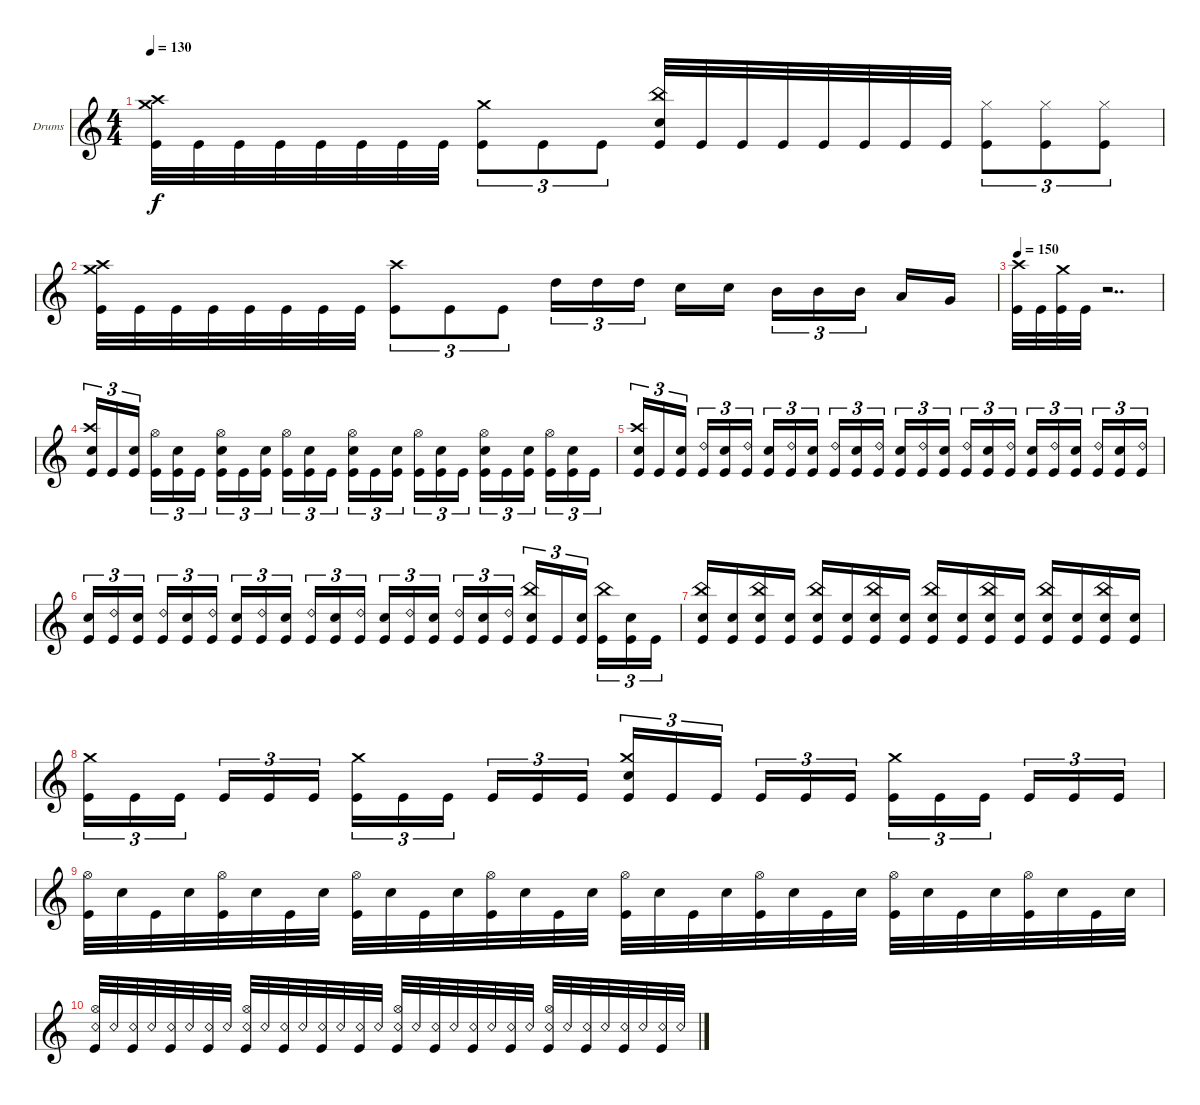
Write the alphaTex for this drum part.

\defaultSystemsLayout 4
\bracketExtendMode groupsimilarinstruments
\firstSystemTrackNameOrientation horizontal
\otherSystemsTrackNameOrientation horizontal
\track ("Drums" "Drums") {instrument percussion}
\staff {score}
\articulation defaults
\ts (4 4)
\tempo 130
\clef g2
\ks c
("Kick (hit)" "Crash high (hit)" "Crash medium (hit)").32{dy f} "Kick (hit)".32 "Kick (hit)".32 "Kick (hit)".32 "Kick (hit)".32 "Kick (hit)".32 "Kick (hit)".32 "Kick (hit)".32 ("Kick (hit)" "Crash medium (hit)").8{tu (3 2)} "Kick (hit)".8{tu (3 2)} "Kick (hit)".8{tu (3 2)} ("Kick (hit)" "China (hit)" "Snare (hit) 2").32 "Kick (hit)".32 "Kick (hit)".32 "Kick (hit)".32 "Kick (hit)".32 "Kick (hit)".32 "Kick (hit)".32 "Kick (hit)".32 ("Kick (hit)" "Hi-Hat (closed)").8{tu (3 2)} ("Kick (hit)" "Hi-Hat (closed)").8{tu (3 2)} ("Kick (hit)" "Hi-Hat (closed)").8{tu (3 2)} |
("Kick (hit)" "Crash high (hit)" "Crash medium (hit)").32 "Kick (hit)".32 "Kick (hit)".32 "Kick (hit)".32 "Kick (hit)".32 "Kick (hit)".32 "Kick (hit)".32 "Kick (hit)".32 ("Kick (hit)" "Crash high (hit)").8{tu (3 2)} "Kick (hit)".8{tu (3 2)} "Kick (hit)".8{tu (3 2)} "High Tom (hit)".16{tu (3 2)} "High Tom (hit)".16{tu (3 2)} "High Tom (hit)".16{tu (3 2)} "Snare (hit) 2".16 "Snare (hit) 2".16 "Mid Tom (hit)".16{tu (3 2)} "Mid Tom (hit)".16{tu (3 2)} "Mid Tom (hit)".16{tu (3 2)} "Low Tom (hit)".16 "Very Low Tom (hit)".16 |
\tempo 150
("Kick (hit)" "Crash high (hit)").32 "Kick (hit)".32 ("Kick (hit)" "Crash medium (hit)").32 "Kick (hit)".32 r.2{dd} |
("Kick (hit)" "Snare (hit) 2" "Crash high (hit)").16{tu (3 2)} "Kick (hit)".16{tu (3 2)} ("Kick (hit)" "Snare (hit) 2").16{tu (3 2)} ("Kick (hit)" "Hi-Hat (open)").16{tu (3 2)} ("Kick (hit)" "Snare (hit) 2").16{tu (3 2)} "Kick (hit)".16{tu (3 2)} ("Kick (hit)" "Snare (hit) 2" "Hi-Hat (open)").16{tu (3 2)} "Kick (hit)".16{tu (3 2)} ("Kick (hit)" "Snare (hit) 2").16{tu (3 2)} ("Kick (hit)" "Hi-Hat (open)").16{tu (3 2)} ("Kick (hit)" "Snare (hit) 2").16{tu (3 2)} "Kick (hit)".16{tu (3 2)} ("Kick (hit)" "Snare (hit) 2" "Hi-Hat (open)").16{tu (3 2)} "Kick (hit)".16{tu (3 2)} ("Kick (hit)" "Snare (hit) 2").16{tu (3 2)} ("Kick (hit)" "Hi-Hat (open)").16{tu (3 2)} ("Kick (hit)" "Snare (hit) 2").16{tu (3 2)} "Kick (hit)".16{tu (3 2)} ("Kick (hit)" "Snare (hit) 2" "Hi-Hat (open)").16{tu (3 2)} "Kick (hit)".16{tu (3 2)} ("Kick (hit)" "Snare (hit) 2").16{tu (3 2)} ("Kick (hit)" "Hi-Hat (open)").16{tu (3 2)} ("Kick (hit)" "Snare (hit) 2").16{tu (3 2)} "Kick (hit)".16{tu (3 2)} |
("Kick (hit)" "Snare (hit) 2" "Crash high (hit)").16{tu (3 2)} "Kick (hit)".16{tu (3 2)} ("Kick (hit)" "Snare (hit) 2").16{tu (3 2)} ("Kick (hit)" "Ride (bell) 2").16{tu (3 2)} ("Kick (hit)" "Snare (hit) 2").16{tu (3 2)} ("Kick (hit)" "Ride (bell) 2").16{tu (3 2)} ("Kick (hit)" "Snare (hit) 2").16{tu (3 2)} ("Kick (hit)" "Ride (bell) 2").16{tu (3 2)} ("Kick (hit)" "Snare (hit) 2").16{tu (3 2)} ("Kick (hit)" "Ride (bell) 2").16{tu (3 2)} ("Kick (hit)" "Snare (hit) 2").16{tu (3 2)} ("Kick (hit)" "Ride (bell) 2").16{tu (3 2)} ("Kick (hit)" "Snare (hit) 2").16{tu (3 2)} ("Kick (hit)" "Ride (bell) 2").16{tu (3 2)} ("Kick (hit)" "Snare (hit) 2").16{tu (3 2)} ("Kick (hit)" "Ride (bell) 2").16{tu (3 2)} ("Kick (hit)" "Snare (hit) 2").16{tu (3 2)} ("Kick (hit)" "Ride (bell) 2").16{tu (3 2)} ("Kick (hit)" "Snare (hit) 2").16{tu (3 2)} ("Kick (hit)" "Ride (bell) 2").16{tu (3 2)} ("Kick (hit)" "Snare (hit) 2").16{tu (3 2)} ("Kick (hit)" "Ride (bell) 2").16{tu (3 2)} ("Kick (hit)" "Snare (hit) 2").16{tu (3 2)} ("Kick (hit)" "Ride (bell) 2").16{tu (3 2)} |
("Kick (hit)" "Snare (hit) 2").16{tu (3 2)} ("Kick (hit)" "Ride (bell) 2").16{tu (3 2)} ("Kick (hit)" "Snare (hit) 2").16{tu (3 2)} ("Kick (hit)" "Ride (bell) 2").16{tu (3 2)} ("Kick (hit)" "Snare (hit) 2").16{tu (3 2)} ("Kick (hit)" "Ride (bell) 2").16{tu (3 2)} ("Kick (hit)" "Snare (hit) 2").16{tu (3 2)} ("Kick (hit)" "Ride (bell) 2").16{tu (3 2)} ("Kick (hit)" "Snare (hit) 2").16{tu (3 2)} ("Kick (hit)" "Ride (bell) 2").16{tu (3 2)} ("Kick (hit)" "Snare (hit) 2").16{tu (3 2)} ("Kick (hit)" "Ride (bell) 2").16{tu (3 2)} ("Kick (hit)" "Snare (hit) 2").16{tu (3 2)} ("Kick (hit)" "Ride (bell) 2").16{tu (3 2)} ("Kick (hit)" "Snare (hit) 2").16{tu (3 2)} ("Kick (hit)" "Ride (bell) 2").16{tu (3 2)} ("Kick (hit)" "Snare (hit) 2").16{tu (3 2)} ("Kick (hit)" "Ride (bell) 2").16{tu (3 2)} ("Snare (hit) 2" "Kick (hit)" "China (hit)").16{tu (3 2)} "Kick (hit)".16{tu (3 2)} ("Snare (hit) 2" "Kick (hit)").16{tu (3 2)} ("Kick (hit)" "China (hit)").16{tu (3 2)} ("Snare (hit) 2" "Kick (hit)").16{tu (3 2)} "Kick (hit)".16{tu (3 2)} |
("Kick (hit)" "Snare (hit) 2" "China (hit)").16 ("Kick (hit)" "Snare (hit) 2").16 ("Kick (hit)" "Snare (hit) 2" "China (hit)").16 ("Kick (hit)" "Snare (hit) 2").16 ("Kick (hit)" "Snare (hit) 2" "China (hit)").16 ("Kick (hit)" "Snare (hit) 2").16 ("Kick (hit)" "Snare (hit) 2" "China (hit)").16 ("Kick (hit)" "Snare (hit) 2").16 ("Kick (hit)" "Snare (hit) 2" "China (hit)").16 ("Kick (hit)" "Snare (hit) 2").16 ("Kick (hit)" "Snare (hit) 2" "China (hit)").16 ("Kick (hit)" "Snare (hit) 2").16 ("Kick (hit)" "Snare (hit) 2" "China (hit)").16 ("Kick (hit)" "Snare (hit) 2").16 ("Kick (hit)" "Snare (hit) 2" "China (hit)").16 ("Kick (hit)" "Snare (hit) 2").16 |
("Kick (hit)" "Crash medium (hit)").16{tu (3 2)} "Kick (hit)".16{tu (3 2)} "Kick (hit)".16{tu (3 2)} "Kick (hit)".16{tu (3 2)} "Kick (hit)".16{tu (3 2)} "Kick (hit)".16{tu (3 2)} ("Kick (hit)" "Crash medium (hit)").16{tu (3 2)} "Kick (hit)".16{tu (3 2)} "Kick (hit)".16{tu (3 2)} "Kick (hit)".16{tu (3 2)} "Kick (hit)".16{tu (3 2)} "Kick (hit)".16{tu (3 2)} ("Kick (hit)" "Snare (hit) 2" "Crash medium (hit)").16{tu (3 2)} "Kick (hit)".16{tu (3 2)} "Kick (hit)".16{tu (3 2)} "Kick (hit)".16{tu (3 2)} "Kick (hit)".16{tu (3 2)} "Kick (hit)".16{tu (3 2)} ("Kick (hit)" "Crash medium (hit)").16{tu (3 2)} "Kick (hit)".16{tu (3 2)} "Kick (hit)".16{tu (3 2)} "Kick (hit)".16{tu (3 2)} "Kick (hit)".16{tu (3 2)} "Kick (hit)".16{tu (3 2)} |
("Kick (hit)" "Hi-Hat (open)").32 "Snare (hit) 2".32 "Kick (hit)".32 "Snare (hit) 2".32 ("Kick (hit)" "Hi-Hat (open)").32 "Snare (hit) 2".32 "Kick (hit)".32 "Snare (hit) 2".32 ("Kick (hit)" "Hi-Hat (open)").32 "Snare (hit) 2".32 "Kick (hit)".32 "Snare (hit) 2".32 ("Kick (hit)" "Hi-Hat (open)").32 "Snare (hit) 2".32 "Kick (hit)".32 "Snare (hit) 2".32 ("Kick (hit)" "Hi-Hat (open)").32 "Snare (hit) 2".32 "Kick (hit)".32 "Snare (hit) 2".32 ("Kick (hit)" "Hi-Hat (open)").32 "Snare (hit) 2".32 "Kick (hit)".32 "Snare (hit) 2".32 ("Kick (hit)" "Hi-Hat (open)").32 "Snare (hit) 2".32 "Kick (hit)".32 "Snare (hit) 2".32 ("Kick (hit)" "Hi-Hat (open)").32 "Snare (hit) 2".32 "Kick (hit)".32 "Snare (hit) 2".32 |
("Snare (rim shot)" "Kick (hit)" "Hi-Hat (open)").32 "Snare (rim shot)".32 ("Snare (rim shot)" "Kick (hit)").32 "Snare (rim shot)".32 ("Snare (rim shot)" "Kick (hit)").32 "Snare (rim shot)".32 ("Snare (rim shot)" "Kick (hit)").32 "Snare (rim shot)".32 ("Snare (rim shot)" "Kick (hit)" "Hi-Hat (open)").32 "Snare (rim shot)".32 ("Snare (rim shot)" "Kick (hit)").32 "Snare (rim shot)".32 ("Snare (rim shot)" "Kick (hit)").32 "Snare (rim shot)".32 ("Snare (rim shot)" "Kick (hit)").32 "Snare (rim shot)".32 ("Snare (rim shot)" "Kick (hit)" "Hi-Hat (open)").32 "Snare (rim shot)".32 ("Snare (rim shot)" "Kick (hit)").32 "Snare (rim shot)".32 ("Snare (rim shot)" "Kick (hit)").32 "Snare (rim shot)".32 ("Snare (rim shot)" "Kick (hit)").32 "Snare (rim shot)".32 ("Snare (rim shot)" "Kick (hit)" "Hi-Hat (open)").32 "Snare (rim shot)".32 ("Snare (rim shot)" "Kick (hit)").32 "Snare (rim shot)".32 ("Snare (rim shot)" "Kick (hit)").32 "Snare (rim shot)".32 ("Snare (rim shot)" "Kick (hit)").32 "Snare (rim shot)".32
